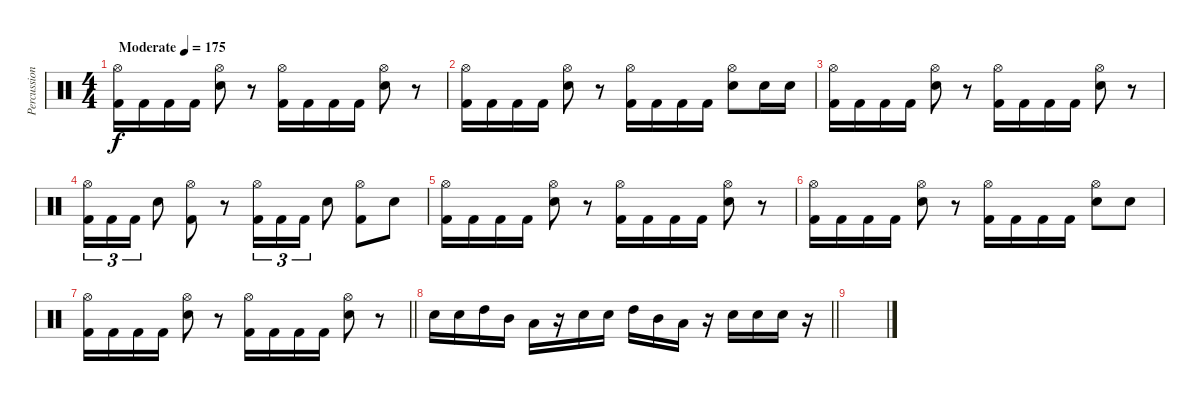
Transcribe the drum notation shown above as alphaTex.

\track ("Percussioni" "Percussion") {instrument percussion}
\staff {score}
\articulation defaults
\ts (4 4)
\section ("" "")
\tempo (175 "Moderate")
\clef neutral
\ks c
("Hi-Hat (open)" "Kick (hit) 2").16{dy f} "Kick (hit) 2".16 "Kick (hit) 2".16 "Kick (hit) 2".16 ("Hi-Hat (open)" "Electric Snare (hit)").8 r.8 ("Hi-Hat (open)" "Kick (hit) 2").16 "Kick (hit) 2".16 "Kick (hit) 2".16 "Kick (hit) 2".16 ("Hi-Hat (open)" "Electric Snare (hit)").8 r.8 |
("Hi-Hat (open)" "Kick (hit) 2").16 "Kick (hit) 2".16 "Kick (hit) 2".16 "Kick (hit) 2".16 ("Hi-Hat (open)" "Electric Snare (hit)").8 r.8 ("Hi-Hat (open)" "Kick (hit) 2").16 "Kick (hit) 2".16 "Kick (hit) 2".16 "Kick (hit) 2".16 ("Hi-Hat (open)" "Electric Snare (hit)").8 "Electric Snare (hit)".16 "Electric Snare (hit)".16 |
("Hi-Hat (open)" "Kick (hit) 2").16 "Kick (hit) 2".16 "Kick (hit) 2".16 "Kick (hit) 2".16 ("Hi-Hat (open)" "Electric Snare (hit)").8 r.8 ("Hi-Hat (open)" "Kick (hit) 2").16 "Kick (hit) 2".16 "Kick (hit) 2".16 "Kick (hit) 2".16 ("Hi-Hat (open)" "Electric Snare (hit)").8 r.8 |
("Hi-Hat (open)" "Kick (hit) 2").16{tu (3 2)} "Kick (hit) 2".16{tu (3 2)} "Kick (hit) 2".16{tu (3 2)} "Electric Snare (hit)".8 ("Hi-Hat (open)" "Kick (hit) 2").8 r.8 ("Hi-Hat (open)" "Kick (hit) 2").16{tu (3 2)} "Kick (hit) 2".16{tu (3 2)} "Kick (hit) 2".16{tu (3 2)} "Electric Snare (hit)".8 ("Hi-Hat (open)" "Kick (hit) 2").8 "Electric Snare (hit)".8 |
("Hi-Hat (open)" "Kick (hit) 2").16 "Kick (hit) 2".16 "Kick (hit) 2".16 "Kick (hit) 2".16 ("Hi-Hat (open)" "Electric Snare (hit)").8 r.8 ("Hi-Hat (open)" "Kick (hit) 2").16 "Kick (hit) 2".16 "Kick (hit) 2".16 "Kick (hit) 2".16 ("Hi-Hat (open)" "Electric Snare (hit)").8 r.8 |
("Hi-Hat (open)" "Kick (hit) 2").16 "Kick (hit) 2".16 "Kick (hit) 2".16 "Kick (hit) 2".16 ("Hi-Hat (open)" "Electric Snare (hit)").8 r.8 ("Hi-Hat (open)" "Kick (hit) 2").16 "Kick (hit) 2".16 "Kick (hit) 2".16 "Kick (hit) 2".16 ("Hi-Hat (open)" "Electric Snare (hit)").8 "Electric Snare (hit)".8 |
\barLineRight lightlight
("Hi-Hat (open)" "Kick (hit) 2").16 "Kick (hit) 2".16 "Kick (hit) 2".16 "Kick (hit) 2".16 ("Hi-Hat (open)" "Electric Snare (hit)").8 r.8 ("Hi-Hat (open)" "Kick (hit) 2").16 "Kick (hit) 2".16 "Kick (hit) 2".16 "Kick (hit) 2".16 ("Hi-Hat (open)" "Electric Snare (hit)").8 r.8 |
\section ("" "")
\barLineRight lightlight "Electric Snare (hit)".16 "Electric Snare (hit)".16 "High Tom (hit)".16 "Mid Tom (hit)".16 "Low Tom (hit)".16
r.16 "Electric Snare (hit)".16 "Electric Snare (hit)".16 "High Tom (hit)".16 "Mid Tom (hit)".16 "Low Tom (hit)".16 r.16 "Electric Snare (hit)".16 "Electric Snare (hit)".16 "Electric Snare (hit)".16 r.16 |
\section ("" "")
